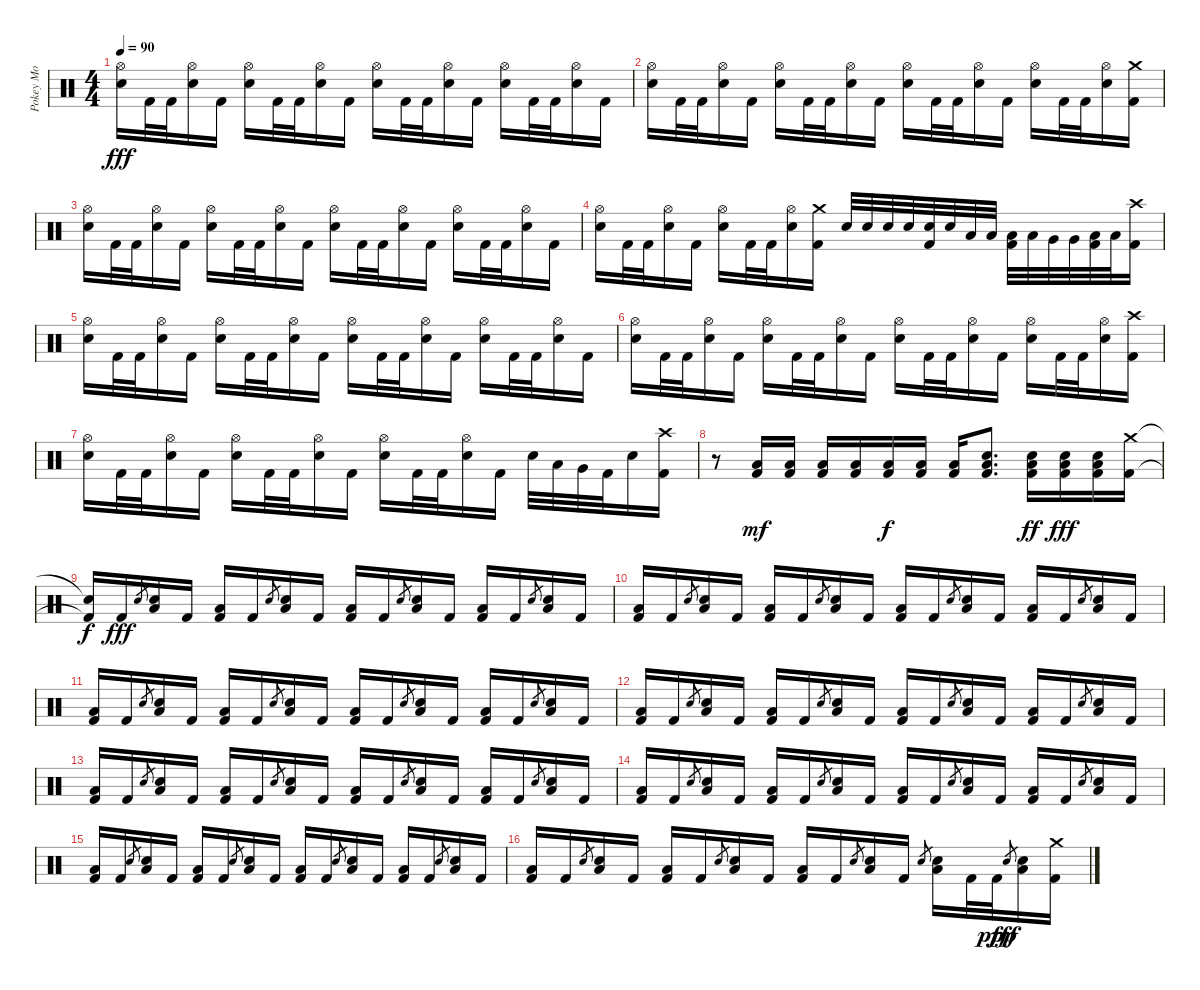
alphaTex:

\track ("Pokey Mo" "Pokey Mo") {instrument percussion}
\staff {score}
\articulation defaults
\ts (4 4)
\tempo 90
\clef neutral
\ks c
("Hi-Hat (open)" "Electric Snare (hit)").16{dy fff} "Kick (hit) 2".32 "Kick (hit) 2".32 ("Hi-Hat (open)" "Electric Snare (hit)").16 "Kick (hit) 2".16 ("Hi-Hat (open)" "Electric Snare (hit)").16 "Kick (hit) 2".32 "Kick (hit) 2".32 ("Hi-Hat (open)" "Electric Snare (hit)").16 "Kick (hit) 2".16 ("Hi-Hat (open)" "Electric Snare (hit)").16 "Kick (hit) 2".32 "Kick (hit) 2".32 ("Hi-Hat (open)" "Electric Snare (hit)").16 "Kick (hit) 2".16 ("Hi-Hat (open)" "Electric Snare (hit)").16 "Kick (hit) 2".32 "Kick (hit) 2".32 ("Hi-Hat (open)" "Electric Snare (hit)").16 "Kick (hit) 2".16 |
("Hi-Hat (open)" "Electric Snare (hit)").16 "Kick (hit) 2".32 "Kick (hit) 2".32 ("Hi-Hat (open)" "Electric Snare (hit)").16 "Kick (hit) 2".16 ("Hi-Hat (open)" "Electric Snare (hit)").16 "Kick (hit) 2".32 "Kick (hit) 2".32 ("Hi-Hat (open)" "Electric Snare (hit)").16 "Kick (hit) 2".16 ("Hi-Hat (open)" "Electric Snare (hit)").16 "Kick (hit) 2".32 "Kick (hit) 2".32 ("Hi-Hat (open)" "Electric Snare (hit)").16 "Kick (hit) 2".16 ("Hi-Hat (open)" "Electric Snare (hit)").16 "Kick (hit) 2".32 "Kick (hit) 2".32 ("Hi-Hat (open)" "Electric Snare (hit)").16 ("Crash medium (hit)" "Kick (hit) 2").16 |
("Hi-Hat (open)" "Electric Snare (hit)").16 "Kick (hit) 2".32 "Kick (hit) 2".32 ("Hi-Hat (open)" "Electric Snare (hit)").16 "Kick (hit) 2".16 ("Hi-Hat (open)" "Electric Snare (hit)").16 "Kick (hit) 2".32 "Kick (hit) 2".32 ("Hi-Hat (open)" "Electric Snare (hit)").16 "Kick (hit) 2".16 ("Hi-Hat (open)" "Electric Snare (hit)").16 "Kick (hit) 2".32 "Kick (hit) 2".32 ("Hi-Hat (open)" "Electric Snare (hit)").16 "Kick (hit) 2".16 ("Hi-Hat (open)" "Electric Snare (hit)").16 "Kick (hit) 2".32 "Kick (hit) 2".32 ("Hi-Hat (open)" "Electric Snare (hit)").16 "Kick (hit) 2".16 |
("Hi-Hat (open)" "Electric Snare (hit)").16 "Kick (hit) 2".32 "Kick (hit) 2".32 ("Hi-Hat (open)" "Electric Snare (hit)").16 "Kick (hit) 2".16 ("Hi-Hat (open)" "Electric Snare (hit)").16 "Kick (hit) 2".32 "Kick (hit) 2".32 ("Hi-Hat (open)" "Electric Snare (hit)").16 ("Crash medium (hit)" "Kick (hit) 2").16 "Electric Snare (hit)".32 "Electric Snare (hit)".32 "Electric Snare (hit)".32 "Electric Snare (hit)".32 ("Electric Snare (hit)" "Kick (hit) 2").32 "Electric Snare (hit)".32 "Low Tom (hit)".32 "Low Tom (hit)".32 ("Low Tom (hit)" "Kick (hit) 2").32 "Low Tom (hit)".32 "Very Low Tom (hit)".32 "Very Low Tom (hit)".32 ("Low Floor Tom (hit)" "Kick (hit) 2").32 "Low Floor Tom (hit)".32 ("Crash high (hit)" "Kick (hit) 2").16 |
("Hi-Hat (open)" "Electric Snare (hit)").16 "Kick (hit) 2".32 "Kick (hit) 2".32 ("Hi-Hat (open)" "Electric Snare (hit)").16 "Kick (hit) 2".16 ("Hi-Hat (open)" "Electric Snare (hit)").16 "Kick (hit) 2".32 "Kick (hit) 2".32 ("Hi-Hat (open)" "Electric Snare (hit)").16 "Kick (hit) 2".16 ("Hi-Hat (open)" "Electric Snare (hit)").16 "Kick (hit) 2".32 "Kick (hit) 2".32 ("Hi-Hat (open)" "Electric Snare (hit)").16 "Kick (hit) 2".16 ("Hi-Hat (open)" "Electric Snare (hit)").16 "Kick (hit) 2".32 "Kick (hit) 2".32 ("Hi-Hat (open)" "Electric Snare (hit)").16 "Kick (hit) 2".16 |
("Hi-Hat (open)" "Electric Snare (hit)").16 "Kick (hit) 2".32 "Kick (hit) 2".32 ("Hi-Hat (open)" "Electric Snare (hit)").16 "Kick (hit) 2".16 ("Hi-Hat (open)" "Electric Snare (hit)").16 "Kick (hit) 2".32 "Kick (hit) 2".32 ("Hi-Hat (open)" "Electric Snare (hit)").16 "Kick (hit) 2".16 ("Hi-Hat (open)" "Electric Snare (hit)").16 "Kick (hit) 2".32 "Kick (hit) 2".32 ("Hi-Hat (open)" "Electric Snare (hit)").16 "Kick (hit) 2".16 ("Hi-Hat (open)" "Electric Snare (hit)").16 "Kick (hit) 2".32 "Kick (hit) 2".32 ("Hi-Hat (open)" "Electric Snare (hit)").16 ("Crash high (hit)" "Kick (hit) 2").16 |
("Hi-Hat (open)" "Electric Snare (hit)").16 "Kick (hit) 2".32 "Kick (hit) 2".32 ("Hi-Hat (open)" "Electric Snare (hit)").16 "Kick (hit) 2".16 ("Hi-Hat (open)" "Electric Snare (hit)").16 "Kick (hit) 2".32 "Kick (hit) 2".32 ("Hi-Hat (open)" "Electric Snare (hit)").16 "Kick (hit) 2".16 ("Hi-Hat (open)" "Electric Snare (hit)").16 "Kick (hit) 2".32 "Kick (hit) 2".32 ("Hi-Hat (open)" "Electric Snare (hit)").16 "Kick (hit) 2".16 "Electric Snare (hit)".32 "Low Tom (hit)".32 "Very Low Tom (hit)".32 "Kick (hit) 2".32 "Electric Snare (hit)".16 ("Crash high (hit)" "Kick (hit) 2").16 |
r.8 ("Low Floor Tom (hit)" "Kick (hit) 2").16{dy mf} ("Low Floor Tom (hit)" "Kick (hit) 2").16 ("Low Floor Tom (hit)" "Kick (hit) 2").16 ("Low Floor Tom (hit)" "Kick (hit) 2").16 ("Low Floor Tom (hit)" "Kick (hit) 2").16{dy f} ("Low Floor Tom (hit)" "Kick (hit) 2").16 ("Low Floor Tom (hit)" "Kick (hit) 2").16 ("Electric Snare (hit)" "Low Floor Tom (hit)" "Kick (hit) 2").8{d} ("Electric Snare (hit)" "Low Floor Tom (hit)" "Kick (hit) 2").16{dy ff} ("Electric Snare (hit)" "Low Floor Tom (hit)" "Kick (hit) 2").16{dy fff} ("Electric Snare (hit)" "Low Floor Tom (hit)" "Kick (hit) 2").16 ("Crash medium (hit)" "Kick (hit) 2").16 |
("Snare (hit)"{t} "Kick (hit) 2"{t}).16{dy f} "Kick (hit) 2".16{dy fff} "Electric Snare (hit)".8{gr} ("Electric Snare (hit)" "Low Floor Tom (hit)").16 "Kick (hit) 2".16 ("Low Floor Tom (hit)" "Kick (hit) 2").16 "Kick (hit) 2".16 "Electric Snare (hit)".8{gr} ("Electric Snare (hit)" "Low Floor Tom (hit)").16 "Kick (hit) 2".16 ("Low Floor Tom (hit)" "Kick (hit) 2").16 "Kick (hit) 2".16 "Electric Snare (hit)".8{gr} ("Electric Snare (hit)" "Low Floor Tom (hit)").16 "Kick (hit) 2".16 ("Low Floor Tom (hit)" "Kick (hit) 2").16 "Kick (hit) 2".16 "Electric Snare (hit)".8{gr} ("Electric Snare (hit)" "Low Floor Tom (hit)").16 "Kick (hit) 2".16 |
("Low Floor Tom (hit)" "Kick (hit) 2").16 "Kick (hit) 2".16 "Electric Snare (hit)".8{gr} ("Electric Snare (hit)" "Low Floor Tom (hit)").16 "Kick (hit) 2".16 ("Low Floor Tom (hit)" "Kick (hit) 2").16 "Kick (hit) 2".16 "Electric Snare (hit)".8{gr} ("Electric Snare (hit)" "Low Floor Tom (hit)").16 "Kick (hit) 2".16 ("Low Floor Tom (hit)" "Kick (hit) 2").16 "Kick (hit) 2".16 "Electric Snare (hit)".8{gr} ("Electric Snare (hit)" "Low Floor Tom (hit)").16 "Kick (hit) 2".16 ("Low Floor Tom (hit)" "Kick (hit) 2").16 "Kick (hit) 2".16 "Electric Snare (hit)".8{gr} ("Electric Snare (hit)" "Low Floor Tom (hit)").16 "Kick (hit) 2".16 |
("Low Floor Tom (hit)" "Kick (hit) 2").16 "Kick (hit) 2".16 "Electric Snare (hit)".8{gr} ("Electric Snare (hit)" "Low Floor Tom (hit)").16 "Kick (hit) 2".16 ("Low Floor Tom (hit)" "Kick (hit) 2").16 "Kick (hit) 2".16 "Electric Snare (hit)".8{gr} ("Electric Snare (hit)" "Low Floor Tom (hit)").16 "Kick (hit) 2".16 ("Low Floor Tom (hit)" "Kick (hit) 2").16 "Kick (hit) 2".16 "Electric Snare (hit)".8{gr} ("Electric Snare (hit)" "Low Floor Tom (hit)").16 "Kick (hit) 2".16 ("Low Floor Tom (hit)" "Kick (hit) 2").16 "Kick (hit) 2".16 "Electric Snare (hit)".8{gr} ("Electric Snare (hit)" "Low Floor Tom (hit)").16 "Kick (hit) 2".16 |
("Low Floor Tom (hit)" "Kick (hit) 2").16 "Kick (hit) 2".16 "Electric Snare (hit)".8{gr} ("Electric Snare (hit)" "Low Floor Tom (hit)").16 "Kick (hit) 2".16 ("Low Floor Tom (hit)" "Kick (hit) 2").16 "Kick (hit) 2".16 "Electric Snare (hit)".8{gr} ("Electric Snare (hit)" "Low Floor Tom (hit)").16 "Kick (hit) 2".16 ("Low Floor Tom (hit)" "Kick (hit) 2").16 "Kick (hit) 2".16 "Electric Snare (hit)".8{gr} ("Electric Snare (hit)" "Low Floor Tom (hit)").16 "Kick (hit) 2".16 ("Low Floor Tom (hit)" "Kick (hit) 2").16 "Kick (hit) 2".16 "Electric Snare (hit)".8{gr} ("Electric Snare (hit)" "Low Floor Tom (hit)").16 "Kick (hit) 2".16 |
("Low Floor Tom (hit)" "Kick (hit) 2").16 "Kick (hit) 2".16 "Electric Snare (hit)".8{gr} ("Electric Snare (hit)" "Low Floor Tom (hit)").16 "Kick (hit) 2".16 ("Low Floor Tom (hit)" "Kick (hit) 2").16 "Kick (hit) 2".16 "Electric Snare (hit)".8{gr} ("Electric Snare (hit)" "Low Floor Tom (hit)").16 "Kick (hit) 2".16 ("Low Floor Tom (hit)" "Kick (hit) 2").16 "Kick (hit) 2".16 "Electric Snare (hit)".8{gr} ("Electric Snare (hit)" "Low Floor Tom (hit)").16 "Kick (hit) 2".16 ("Low Floor Tom (hit)" "Kick (hit) 2").16 "Kick (hit) 2".16 "Electric Snare (hit)".8{gr} ("Electric Snare (hit)" "Low Floor Tom (hit)").16 "Kick (hit) 2".16 |
("Low Floor Tom (hit)" "Kick (hit) 2").16 "Kick (hit) 2".16 "Electric Snare (hit)".8{gr} ("Electric Snare (hit)" "Low Floor Tom (hit)").16 "Kick (hit) 2".16 ("Low Floor Tom (hit)" "Kick (hit) 2").16 "Kick (hit) 2".16 "Electric Snare (hit)".8{gr} ("Electric Snare (hit)" "Low Floor Tom (hit)").16 "Kick (hit) 2".16 ("Low Floor Tom (hit)" "Kick (hit) 2").16 "Kick (hit) 2".16 "Electric Snare (hit)".8{gr} ("Electric Snare (hit)" "Low Floor Tom (hit)").16 "Kick (hit) 2".16 ("Low Floor Tom (hit)" "Kick (hit) 2").16 "Kick (hit) 2".16 "Electric Snare (hit)".8{gr} ("Electric Snare (hit)" "Low Floor Tom (hit)").16 "Kick (hit) 2".16 |
("Low Floor Tom (hit)" "Kick (hit) 2").16 "Kick (hit) 2".16 "Electric Snare (hit)".8{gr} ("Electric Snare (hit)" "Low Floor Tom (hit)").16 "Kick (hit) 2".16 ("Low Floor Tom (hit)" "Kick (hit) 2").16 "Kick (hit) 2".16 "Electric Snare (hit)".8{gr} ("Electric Snare (hit)" "Low Floor Tom (hit)").16 "Kick (hit) 2".16 ("Low Floor Tom (hit)" "Kick (hit) 2").16 "Kick (hit) 2".16 "Electric Snare (hit)".8{gr} ("Electric Snare (hit)" "Low Floor Tom (hit)").16 "Kick (hit) 2".16 ("Low Floor Tom (hit)" "Kick (hit) 2").16 "Kick (hit) 2".16 "Electric Snare (hit)".8{gr} ("Electric Snare (hit)" "Low Floor Tom (hit)").16 "Kick (hit) 2".16 |
("Low Floor Tom (hit)" "Kick (hit) 2").16 "Kick (hit) 2".16 "Electric Snare (hit)".8{gr} ("Electric Snare (hit)" "Low Floor Tom (hit)").16 "Kick (hit) 2".16 ("Low Floor Tom (hit)" "Kick (hit) 2").16 "Kick (hit) 2".16 "Electric Snare (hit)".8{gr} ("Electric Snare (hit)" "Low Floor Tom (hit)").16 "Kick (hit) 2".16 ("Low Floor Tom (hit)" "Kick (hit) 2").16 "Kick (hit) 2".16 "Electric Snare (hit)".8{gr} ("Electric Snare (hit)" "Low Floor Tom (hit)").16 "Kick (hit) 2".16 "Electric Snare (hit)".8{gr} ("Electric Snare (hit)" "Low Floor Tom (hit)").16 "Kick (hit) 2".32 "Kick (hit) 2".32{dy ppp} "Electric Snare (hit)".8{gr dy fff} ("Electric Snare (hit)" "Low Floor Tom (hit)").16 ("Crash medium (hit)" "Kick (hit) 2").16
